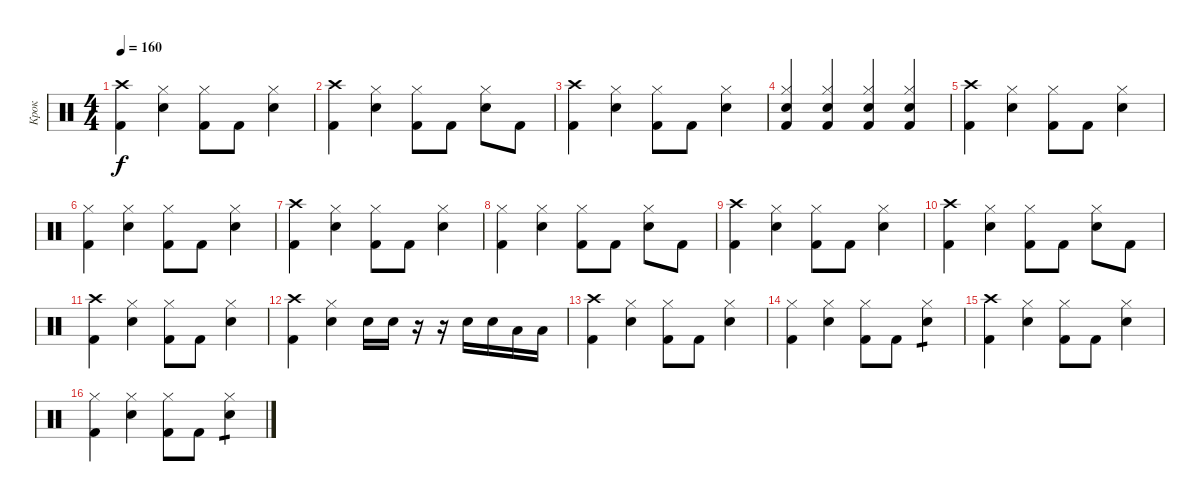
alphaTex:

\track ("Крок" "Крок") {instrument percussion}
\staff {score}
\articulation defaults
\ts (4 4)
\tempo 160
\clef neutral
\ks c
("Crash high (hit)" "Kick (hit) 2").4{dy f} ("Hi-Hat (closed)" "Electric Snare (hit)").4 ("Hi-Hat (closed)" "Kick (hit) 2").8 "Kick (hit) 2".8 ("Hi-Hat (closed)" "Electric Snare (hit)").4 |
("Crash high (hit)" "Kick (hit) 2").4 ("Hi-Hat (closed)" "Electric Snare (hit)").4 ("Hi-Hat (closed)" "Kick (hit) 2").8 "Kick (hit) 2".8 ("Hi-Hat (closed)" "Electric Snare (hit)").8 "Kick (hit) 2".8 |
("Crash high (hit)" "Kick (hit) 2").4 ("Hi-Hat (closed)" "Electric Snare (hit)").4 ("Hi-Hat (closed)" "Kick (hit) 2").8 "Kick (hit) 2".8 ("Hi-Hat (closed)" "Electric Snare (hit)").4 |
("Electric Snare (hit)" "Kick (hit) 2" "Hi-Hat (closed)").4 ("Kick (hit) 2" "Hi-Hat (closed)" "Electric Snare (hit)").4 ("Kick (hit) 2" "Electric Snare (hit)" "Hi-Hat (closed)").4 ("Kick (hit) 2" "Electric Snare (hit)" "Hi-Hat (closed)").4 |
("Crash high (hit)" "Kick (hit) 2").4 ("Hi-Hat (closed)" "Electric Snare (hit)").4 ("Hi-Hat (closed)" "Kick (hit) 2").8 "Kick (hit) 2".8 ("Hi-Hat (closed)" "Electric Snare (hit)").4 |
("Hi-Hat (closed)" "Kick (hit) 2").4 ("Hi-Hat (closed)" "Electric Snare (hit)").4 ("Hi-Hat (closed)" "Kick (hit) 2").8 "Kick (hit) 2".8 ("Hi-Hat (closed)" "Electric Snare (hit)").4 |
("Crash high (hit)" "Kick (hit) 2").4 ("Hi-Hat (closed)" "Electric Snare (hit)").4 ("Hi-Hat (closed)" "Kick (hit) 2").8 "Kick (hit) 2".8 ("Hi-Hat (closed)" "Electric Snare (hit)").4 |
("Hi-Hat (closed)" "Kick (hit) 2").4 ("Hi-Hat (closed)" "Electric Snare (hit)").4 ("Hi-Hat (closed)" "Kick (hit) 2").8 "Kick (hit) 2".8 ("Hi-Hat (closed)" "Electric Snare (hit)").8 "Kick (hit) 2".8 |
("Crash high (hit)" "Kick (hit) 2").4 ("Hi-Hat (closed)" "Electric Snare (hit)").4 ("Hi-Hat (closed)" "Kick (hit) 2").8 "Kick (hit) 2".8 ("Hi-Hat (closed)" "Electric Snare (hit)").4 |
("Crash high (hit)" "Kick (hit) 2").4 ("Hi-Hat (closed)" "Electric Snare (hit)").4 ("Hi-Hat (closed)" "Kick (hit) 2").8 "Kick (hit) 2".8 ("Hi-Hat (closed)" "Electric Snare (hit)").8 "Kick (hit) 2".8 |
("Crash high (hit)" "Kick (hit) 2").4 ("Hi-Hat (closed)" "Electric Snare (hit)").4 ("Hi-Hat (closed)" "Kick (hit) 2").8 "Kick (hit) 2".8 ("Hi-Hat (closed)" "Electric Snare (hit)").4 |
("Crash high (hit)" "Kick (hit) 2").4 ("Hi-Hat (closed)" "Electric Snare (hit)").4 "Electric Snare (hit)".16 "Electric Snare (hit)".16 r.16 r.16 "Electric Snare (hit)".16 "Electric Snare (hit)".16 "Low Tom (hit)".16 "Low Tom (hit)".16 |
("Crash high (hit)" "Kick (hit) 2").4 ("Hi-Hat (closed)" "Electric Snare (hit)").4 ("Hi-Hat (closed)" "Kick (hit) 2").8 "Kick (hit) 2".8 ("Hi-Hat (closed)" "Electric Snare (hit)").4 |
("Hi-Hat (closed)" "Kick (hit) 2").4 ("Hi-Hat (closed)" "Electric Snare (hit)").4 ("Hi-Hat (closed)" "Kick (hit) 2").8 "Kick (hit) 2".8 ("Hi-Hat (closed)" "Electric Snare (hit)").4{tp 1} |
("Crash high (hit)" "Kick (hit) 2").4 ("Hi-Hat (closed)" "Electric Snare (hit)").4 ("Hi-Hat (closed)" "Kick (hit) 2").8 "Kick (hit) 2".8 ("Hi-Hat (closed)" "Electric Snare (hit)").4 |
("Hi-Hat (closed)" "Kick (hit) 2").4 ("Hi-Hat (closed)" "Electric Snare (hit)").4 ("Hi-Hat (closed)" "Kick (hit) 2").8 "Kick (hit) 2".8 ("Hi-Hat (closed)" "Electric Snare (hit)").4{tp 1}
